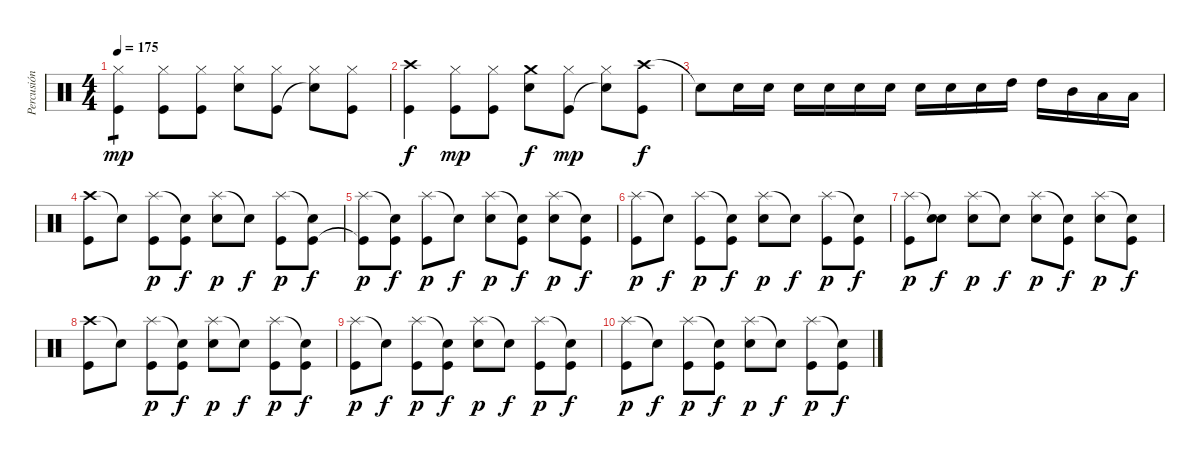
\track ("Percusión" "Percusión") {instrument percussion}
\staff {score}
\articulation defaults
\ts (4 4)
\tempo 175
\clef neutral
\ks c
("Hi-Hat (closed)" "Kick (hit)").4{tp 1 dy mp} ("Hi-Hat (closed)" "Kick (hit)").8 ("Hi-Hat (closed)" "Kick (hit)").8 ("Hi-Hat (closed)" "Snare (hit) 2").8 ("Hi-Hat (closed)" "Kick (hit)").8 ("Hi-Hat (closed)" "Snare (hit)"{t}).8 ("Hi-Hat (closed)" "Kick (hit)").8 |
("Crash high (hit)" "Kick (hit)").4{dy f} ("Hi-Hat (closed)" "Kick (hit)").8{dy mp} ("Hi-Hat (closed)" "Kick (hit)").8 ("Crash medium (hit)" "Snare (hit) 2").8{dy f} ("Hi-Hat (closed)" "Kick (hit)").8{dy mp} ("Hi-Hat (closed)" "Snare (hit)"{t}).8 ("Crash high (hit)" "Kick (hit)").8{dy f} |
"Snare (hit)"{t}.8 "Snare (hit) 2".16 "Snare (hit) 2".16 "Snare (hit) 2".16 "Snare (hit) 2".16 "Snare (hit) 2".16 "Snare (hit) 2".16 "Snare (hit) 2".16 "Snare (hit) 2".16 "Snare (hit) 2".16 "High Tom (hit)".16 "High Tom (hit)".16 "Mid Tom (hit)".16 "Low Tom (hit)".16 "Low Tom (hit)".16 |
("Crash high (hit)" "Kick (hit)").8 "Snare (hit)"{t}.8 ("Splash (hit)" "Kick (hit)").8{dy p} ("Snare (hit)"{t} "Kick (hit)").8{dy f} ("Splash (hit)" "Snare (hit) 2").8{dy p} "Snare (hit)"{t}.8{dy f} ("Splash (hit)" "Kick (hit)").8{dy p} ("Snare (hit)"{t} "Kick (hit)").8{dy f} |
("Splash (hit)" "Kick (hit)"{t}).8{dy p} ("Snare (hit)"{t} "Kick (hit)").8{dy f} ("Splash (hit)" "Kick (hit)").8{dy p} "Snare (hit)"{t}.8{dy f} ("Splash (hit)" "Snare (hit) 2").8{dy p} ("Snare (hit)"{t} "Kick (hit)").8{dy f} ("Splash (hit)" "Snare (hit) 2").8{dy p} ("Snare (hit)"{t} "Kick (hit)").8{dy f} |
("Splash (hit)" "Kick (hit)").8{dy p} "Snare (hit)"{t}.8{dy f} ("Splash (hit)" "Kick (hit)").8{dy p} ("Snare (hit)"{t} "Kick (hit)").8{dy f} ("Splash (hit)" "Snare (hit) 2").8{dy p} "Snare (hit)"{t}.8{dy f} ("Splash (hit)" "Kick (hit)").8{dy p} ("Snare (hit)"{t} "Kick (hit)").8{dy f} |
("Splash (hit)" "Kick (hit)").8{dy p} ("Snare (hit)"{t} "Snare (hit) 2").8{dy f} ("Splash (hit)" "Snare (hit) 2").8{dy p} "Snare (hit)"{t}.8{dy f} ("Splash (hit)" "Snare (hit) 2").8{dy p} ("Snare (hit)"{t} "Kick (hit)").8{dy f} ("Splash (hit)" "Snare (hit) 2").8{dy p} ("Snare (hit)"{t} "Kick (hit)").8{dy f} |
("Crash high (hit)" "Kick (hit)").8 "Snare (hit)"{t}.8 ("Splash (hit)" "Kick (hit)").8{dy p} ("Snare (hit)"{t} "Kick (hit)").8{dy f} ("Splash (hit)" "Snare (hit) 2").8{dy p} "Snare (hit)"{t}.8{dy f} ("Splash (hit)" "Kick (hit)").8{dy p} ("Snare (hit)"{t} "Kick (hit)").8{dy f} |
("Splash (hit)" "Kick (hit)").8{dy p} "Snare (hit)"{t}.8{dy f} ("Splash (hit)" "Kick (hit)").8{dy p} ("Snare (hit)"{t} "Kick (hit)").8{dy f} ("Splash (hit)" "Snare (hit) 2").8{dy p} "Snare (hit)"{t}.8{dy f} ("Splash (hit)" "Kick (hit)").8{dy p} ("Snare (hit)"{t} "Kick (hit)").8{dy f} |
("Splash (hit)" "Kick (hit)").8{dy p} "Snare (hit)"{t}.8{dy f} ("Splash (hit)" "Kick (hit)").8{dy p} ("Snare (hit)"{t} "Kick (hit)").8{dy f} ("Splash (hit)" "Snare (hit) 2").8{dy p} "Snare (hit)"{t}.8{dy f} ("Splash (hit)" "Kick (hit)").8{dy p} ("Snare (hit)"{t} "Kick (hit)").8{dy f}
